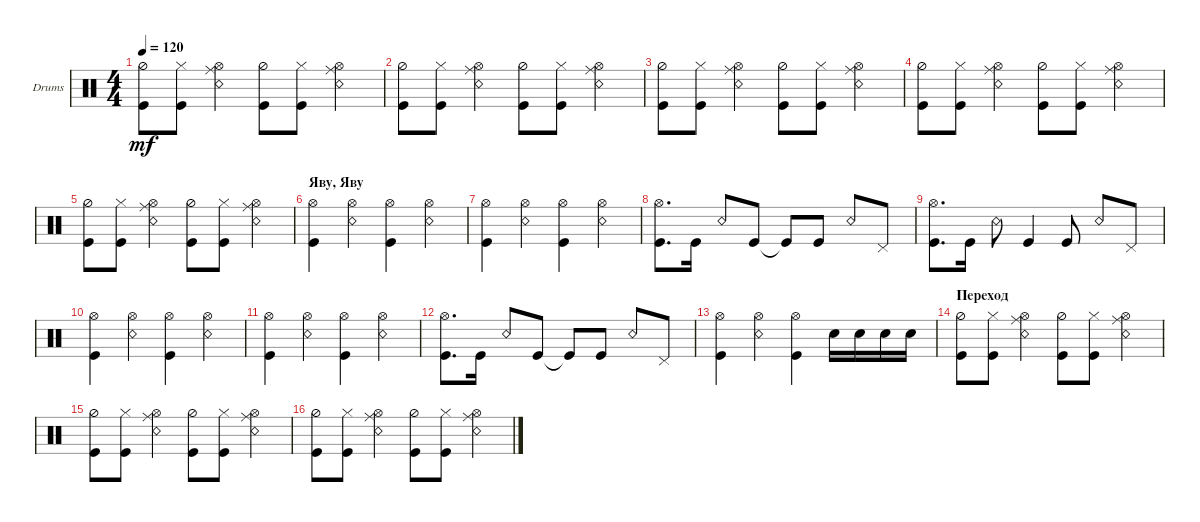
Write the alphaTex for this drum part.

\defaultSystemsLayout 4
\bracketExtendMode groupsimilarinstruments
\firstSystemTrackNameOrientation horizontal
\otherSystemsTrackNameOrientation horizontal
\track ("Drumkit" "Drums") {instrument percussion}
\staff {score}
\articulation defaults
\ts (4 4)
\tempo 120
\clef neutral
\ks c
("Kick (hit)" "Hi-Hat (half)").8{dy mf} ("Hi-Hat (closed)" "Kick (hit)").8 ("Hi-Hat (open)" "Ride (middle)" "Snare (rim shot)").4 ("Kick (hit)" "Hi-Hat (half)").8 ("Hi-Hat (closed)" "Kick (hit)").8 ("Hi-Hat (open)" "Ride (middle)" "Snare (rim shot)").4 |
("Kick (hit)" "Hi-Hat (half)").8 ("Hi-Hat (closed)" "Kick (hit)").8 ("Hi-Hat (open)" "Ride (middle)" "Snare (rim shot)").4 ("Kick (hit)" "Hi-Hat (half)").8 ("Hi-Hat (closed)" "Kick (hit)").8 ("Hi-Hat (open)" "Ride (middle)" "Snare (rim shot)").4 |
("Kick (hit)" "Hi-Hat (half)").8 ("Hi-Hat (closed)" "Kick (hit)").8 ("Hi-Hat (open)" "Ride (middle)" "Snare (rim shot)").4 ("Kick (hit)" "Hi-Hat (half)").8 ("Hi-Hat (closed)" "Kick (hit)").8 ("Hi-Hat (open)" "Ride (middle)" "Snare (rim shot)").4 |
("Kick (hit)" "Hi-Hat (half)").8 ("Hi-Hat (closed)" "Kick (hit)").8 ("Hi-Hat (open)" "Ride (middle)" "Snare (rim shot)").4 ("Kick (hit)" "Hi-Hat (half)").8 ("Hi-Hat (closed)" "Kick (hit)").8 ("Hi-Hat (open)" "Ride (middle)" "Snare (rim shot)").4 |
("Kick (hit)" "Hi-Hat (half)").8 ("Hi-Hat (closed)" "Kick (hit)").8 ("Hi-Hat (open)" "Ride (middle)" "Snare (rim shot)").4 ("Kick (hit)" "Hi-Hat (half)").8 ("Hi-Hat (closed)" "Kick (hit)").8 ("Hi-Hat (open)" "Ride (middle)" "Snare (rim shot)").4 |
\section ("" "Яву, Яву")
("Kick (hit)" "Hi-Hat (open)").4 ("Snare (rim shot)" "Hi-Hat (open)").4 ("Kick (hit)" "Hi-Hat (open)").4 ("Snare (rim shot)" "Hi-Hat (open)").4 |
("Kick (hit)" "Hi-Hat (open)").4 ("Snare (rim shot)" "Hi-Hat (open)").4 ("Kick (hit)" "Hi-Hat (open)").4 ("Snare (rim shot)" "Hi-Hat (open)").4 |
("Kick (hit)" "Hi-Hat (open)").8{d} "Kick (hit)".16 "Snare (rim shot)".8 "Kick (hit)".8 "Kick (hit)"{t}.8 "Kick (hit)".8 "Snare (rim shot)".8 "Pedal Hi-Hat (hit)".8 |
("Kick (hit)" "Hi-Hat (open)").8{d} "Kick (hit)".16 "Snare (rim shot)".8 "Kick (hit)".4 "Kick (hit)".8 "Snare (rim shot)".8 "Pedal Hi-Hat (hit)".8 |
("Kick (hit)" "Hi-Hat (open)").4 ("Snare (rim shot)" "Hi-Hat (open)").4 ("Kick (hit)" "Hi-Hat (open)").4 ("Snare (rim shot)" "Hi-Hat (open)").4 |
("Kick (hit)" "Hi-Hat (open)").4 ("Snare (rim shot)" "Hi-Hat (open)").4 ("Kick (hit)" "Hi-Hat (open)").4 ("Snare (rim shot)" "Hi-Hat (open)").4 |
("Kick (hit)" "Hi-Hat (open)").8{d} "Kick (hit)".16 "Snare (rim shot)".8 "Kick (hit)".8 "Kick (hit)"{t}.8 "Kick (hit)".8 "Snare (rim shot)".8 "Pedal Hi-Hat (hit)".8 |
("Kick (hit)" "Hi-Hat (open)").4 ("Snare (rim shot)" "Hi-Hat (open)").4 ("Kick (hit)" "Hi-Hat (open)").4 "Snare (hit) 2".16 "Snare (hit) 2".16 "Snare (hit) 2".16 "Snare (hit) 2".16 |
\section ("" "Переход")
("Kick (hit)" "Hi-Hat (half)").8 ("Hi-Hat (closed)" "Kick (hit)").8 ("Hi-Hat (open)" "Ride (middle)" "Snare (rim shot)").4 ("Kick (hit)" "Hi-Hat (half)").8 ("Hi-Hat (closed)" "Kick (hit)").8 ("Hi-Hat (open)" "Ride (middle)" "Snare (rim shot)").4 |
("Kick (hit)" "Hi-Hat (half)").8 ("Hi-Hat (closed)" "Kick (hit)").8 ("Hi-Hat (open)" "Ride (middle)" "Snare (rim shot)").4 ("Kick (hit)" "Hi-Hat (half)").8 ("Hi-Hat (closed)" "Kick (hit)").8 ("Hi-Hat (open)" "Ride (middle)" "Snare (rim shot)").4 |
("Kick (hit)" "Hi-Hat (half)").8 ("Hi-Hat (closed)" "Kick (hit)").8 ("Hi-Hat (open)" "Ride (middle)" "Snare (rim shot)").4 ("Kick (hit)" "Hi-Hat (half)").8 ("Hi-Hat (closed)" "Kick (hit)").8 ("Hi-Hat (open)" "Ride (middle)" "Snare (rim shot)").4
